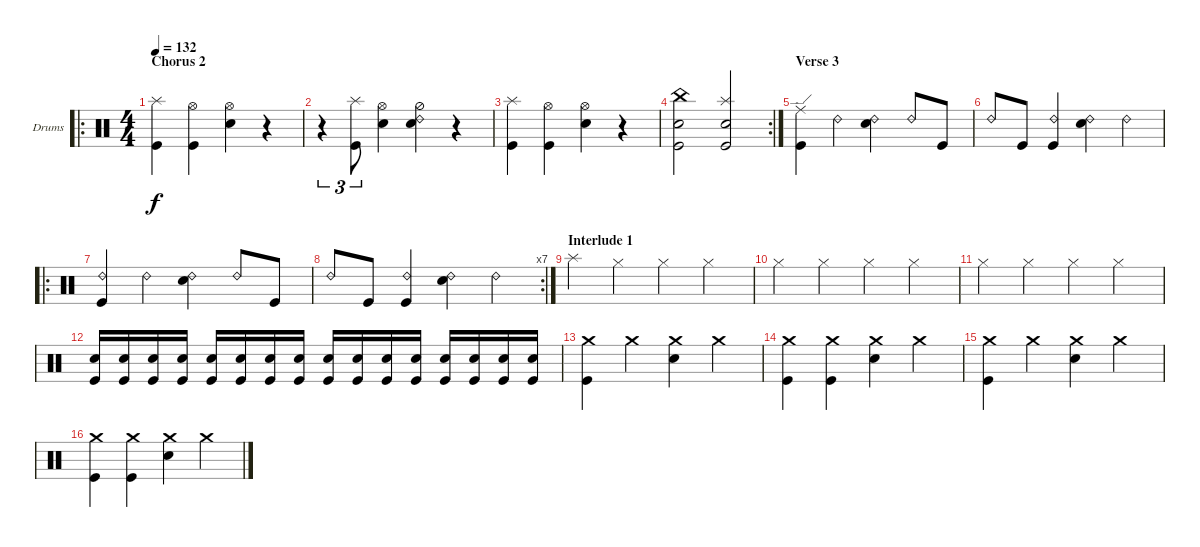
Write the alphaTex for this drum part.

\bracketExtendMode groupsimilarinstruments
\firstSystemTrackNameOrientation horizontal
\otherSystemsTrackNameOrientation horizontal
\track ("Drumkit" "Drums") {instrument percussion}
\staff {score}
\articulation defaults
\ro
\ts (4 4)
\section ("" "Chorus 2")
\tempo 132
\clef neutral
\ks c
("Kick (hit)" "Splash (hit)").4{dy f} ("Kick (hit)" "Hi-Hat (open)").4 ("Snare (hit) 2" "Hi-Hat (open)").4 r.4 |
r.4{tu (3 2)} ("Kick (hit)" "Splash (hit)").8{tu (3 2)} ("Snare (hit) 2" "Hi-Hat (open)").4 ("Snare (hit) 2" "Hi-Hat (half)" "Ride (bell) 2").4 r.4 |
("Kick (hit)" "Splash (hit)").4 ("Kick (hit)" "Hi-Hat (open)").4 ("Snare (hit) 2" "Hi-Hat (open)").4 r.4 |
\rc 2
("Snare (hit) 2" "Kick (hit)" "China (hit)").2 ("Snare (hit) 2" "Kick (hit)" "Splash (hit)").2 |
\section ("" "Verse 3")
("Ride (edge)" "Kick (hit)").4 "Ride (bell) 2".4 ("Ride (bell) 2" "Snare (hit) 2").4 "Ride (bell) 2".8 "Kick (hit)".8 |
"Ride (bell) 2".8 "Kick (hit)".8 ("Ride (bell) 2" "Kick (hit)").4 ("Ride (bell) 2" "Snare (hit) 2").4 "Ride (bell) 2".4 |
\ro
("Ride (bell) 2" "Kick (hit)").4 "Ride (bell) 2".4 ("Ride (bell) 2" "Snare (hit) 2").4 "Ride (bell) 2".8 "Kick (hit)".8 |
\rc 7 "Ride (bell) 2".8 "Kick (hit)".8
("Ride (bell) 2" "Kick (hit)").4 ("Ride (bell) 2" "Snare (hit) 2").4 "Ride (bell) 2".4 |
\section ("" "Interlude 1")
"Splash (hit)".4 "Hi-Hat (closed)".4 "Hi-Hat (closed)".4 "Hi-Hat (closed)".4 |
"Hi-Hat (closed)".4 "Hi-Hat (closed)".4 "Hi-Hat (closed)".4 "Hi-Hat (closed)".4 |
"Hi-Hat (closed)".4 "Hi-Hat (closed)".4 "Hi-Hat (closed)".4 "Hi-Hat (closed)".4 |
("Snare (hit) 2" "Kick (hit)").16 ("Snare (hit) 2" "Kick (hit)").16 ("Snare (hit) 2" "Kick (hit)").16 ("Snare (hit) 2" "Kick (hit)").16 ("Snare (hit) 2" "Kick (hit)").16 ("Snare (hit) 2" "Kick (hit)").16 ("Snare (hit) 2" "Kick (hit)").16 ("Snare (hit) 2" "Kick (hit)").16 ("Snare (hit) 2" "Kick (hit)").16 ("Snare (hit) 2" "Kick (hit)").16 ("Snare (hit) 2" "Kick (hit)").16 ("Snare (hit) 2" "Kick (hit)").16 ("Snare (hit) 2" "Kick (hit)").16 ("Snare (hit) 2" "Kick (hit)").16 ("Snare (hit) 2" "Kick (hit)").16 ("Snare (hit) 2" "Kick (hit)").16 |
("Kick (hit)" "Crash medium (hit)").4 "Crash medium (hit)".4 ("Snare (hit) 2" "Crash medium (hit)").4 "Crash medium (hit)".4 |
("Kick (hit)" "Crash medium (hit)").4 ("Kick (hit)" "Crash medium (hit)").4 ("Snare (hit) 2" "Crash medium (hit)").4 "Crash medium (hit)".4 |
("Kick (hit)" "Crash medium (hit)").4 "Crash medium (hit)".4 ("Snare (hit) 2" "Crash medium (hit)").4 "Crash medium (hit)".4 |
("Kick (hit)" "Crash medium (hit)").4 ("Kick (hit)" "Crash medium (hit)").4 ("Snare (hit) 2" "Crash medium (hit)").4 "Crash medium (hit)".4
